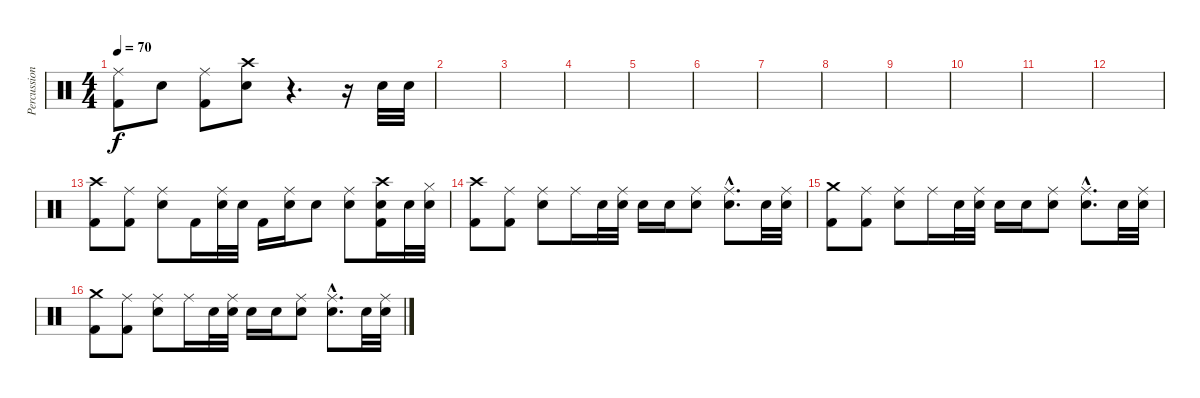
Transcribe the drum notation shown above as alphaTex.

\track ("Percussion" "Percussion") {instrument percussion}
\staff {score}
\articulation defaults
\ts (4 4)
\tempo 70
\clef neutral
\ks c
("Ride (middle)" "Kick (hit) 2").8{dy f} "Electric Snare (hit)".8 ("Ride (middle)" "Kick (hit) 2").8 ("Crash high (hit)" "Electric Snare (hit)").8 r.4{d} r.16 "Electric Snare (hit)".32 "Electric Snare (hit)".32 |
|
|
|
|
|
|
|
|
|
|
|
("Crash high (hit)" "Kick (hit) 2").8 ("Ride (middle)" "Kick (hit) 2").8 ("Ride (middle)" "Electric Snare (hit)").8 "Kick (hit) 2".16 ("Ride (middle)" "Electric Snare (hit)").32 "Electric Snare (hit)".32 "Kick (hit) 2".16 ("Ride (middle)" "Electric Snare (hit)").16 "Electric Snare (hit)".8 ("Ride (middle)" "Electric Snare (hit)").8 ("Crash high (hit)" "Electric Snare (hit)" "Kick (hit) 2").16 "Electric Snare (hit)".32 ("Hi-Hat (closed)" "Electric Snare (hit)").32 |
("Crash high (hit)" "Kick (hit) 2").8 ("Ride (middle)" "Kick (hit) 2").8 ("Ride (middle)" "Electric Snare (hit)").8 "Ride (middle)".16 "Electric Snare (hit)".32 ("Ride (middle)" "Electric Snare (hit)").32 "Electric Snare (hit)".16 "Electric Snare (hit)".16 ("Ride (middle)" "Electric Snare (hit)").8 ("Ride (middle)"{hac} "Electric Snare (hit)"{hac}).8{d} "Electric Snare (hit)".32 ("Ride (middle)" "Electric Snare (hit)").32 |
("Crash medium (hit)" "Kick (hit) 2").8 ("Ride (middle)" "Kick (hit) 2").8 ("Ride (middle)" "Electric Snare (hit)").8 "Ride (middle)".16 "Electric Snare (hit)".32 ("Ride (middle)" "Electric Snare (hit)").32 "Electric Snare (hit)".16 "Electric Snare (hit)".16 ("Ride (middle)" "Electric Snare (hit)").8 ("Ride (middle)"{hac} "Electric Snare (hit)"{hac}).8{d} "Electric Snare (hit)".32 ("Ride (middle)" "Electric Snare (hit)").32 |
("Crash medium (hit)" "Kick (hit) 2").8 ("Ride (middle)" "Kick (hit) 2").8 ("Ride (middle)" "Electric Snare (hit)").8 "Ride (middle)".16 "Electric Snare (hit)".32 ("Ride (middle)" "Electric Snare (hit)").32 "Electric Snare (hit)".16 "Electric Snare (hit)".16 ("Ride (middle)" "Electric Snare (hit)").8 ("Ride (middle)"{hac} "Electric Snare (hit)"{hac}).8{d} "Electric Snare (hit)".32 ("Ride (middle)" "Electric Snare (hit)").32
